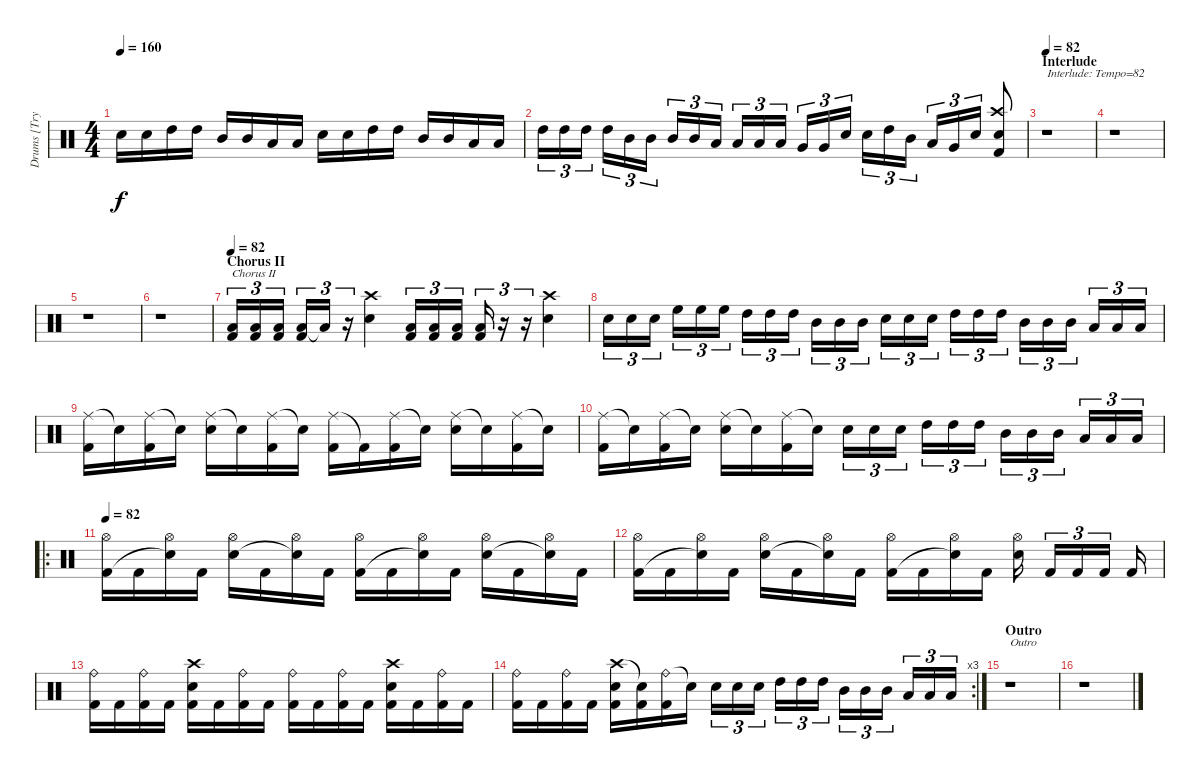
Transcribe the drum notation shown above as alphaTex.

\track ("Drums [Trym]" "Drums [Try") {instrument percussion}
\staff {score}
\articulation defaults
\ts (4 4)
\tempo 160
\clef neutral
\ks c "Electric Snare (hit)".16{dy f} "Electric Snare (hit)".16 "High Tom (hit)".16 "High Tom (hit)".16 "Mid Tom (hit)".16 "Mid Tom (hit)".16 "Low Tom (hit)".16 "Low Tom (hit)".16 "Electric Snare (hit)".16 "Electric Snare (hit)".16 "High Tom (hit)".16 "High Tom (hit)".16 "Mid Tom (hit)".16 "Mid Tom (hit)".16 "Low Tom (hit)".16 "Low Tom (hit)".16
|
"High Tom (hit)".16{tu (3 2)} "High Tom (hit)".16{tu (3 2)} "High Tom (hit)".16{tu (3 2)} "High Tom (hit)".16{tu (3 2)} "Mid Tom (hit)".16{tu (3 2)} "Mid Tom (hit)".16{tu (3 2)} "Mid Tom (hit)".16{tu (3 2)} "Mid Tom (hit)".16{tu (3 2)} "Low Tom (hit)".16{tu (3 2)} "Low Tom (hit)".16{tu (3 2)} "Low Tom (hit)".16{tu (3 2)} "Low Tom (hit)".16{tu (3 2)} "Very Low Tom (hit)".16{tu (3 2)} "Very Low Tom (hit)".16{tu (3 2)} "Electric Snare (hit)".16{tu (3 2)} "Electric Snare (hit)".16{tu (3 2)} "High Tom (hit)".16{tu (3 2)} "Mid Tom (hit)".16{tu (3 2)} "Low Tom (hit)".16{tu (3 2)} "Very Low Tom (hit)".16{tu (3 2)} "Electric Snare (hit)".16{tu (3 2)} ("Crash high (hit)" "Electric Snare (hit)" "Kick (hit) 2").8 |
\section ("" "Interlude")
\tempo 82
r.1{txt "Interlude: Tempo=82"} |
r.1 |
r.1 |
r.1 |
\section ("" "Chorus II")
\tempo 82
("Low Tom (hit)" "Kick (hit) 2").16{tu (3 2) txt "Chorus II"} ("Low Tom (hit)" "Kick (hit) 2").16{tu (3 2)} ("Low Tom (hit)" "Kick (hit) 2").16{tu (3 2)} ("Low Tom (hit)" "Kick (hit) 2").16{tu (3 2)} "Low Tom (hit)"{t}.16{tu (3 2)} r.16{tu (3 2)} ("Crash high (hit)" "Electric Snare (hit)").4 ("Low Tom (hit)" "Kick (hit) 2").16{tu (3 2)} ("Low Tom (hit)" "Kick (hit) 2").16{tu (3 2)} ("Low Tom (hit)" "Kick (hit) 2").16{tu (3 2)} ("Low Tom (hit)" "Kick (hit) 2").16{tu (3 2)} r.16{tu (3 2)} r.16{tu (3 2)} ("Crash high (hit)" "Electric Snare (hit)").4 |
"Electric Snare (hit)".16{tu (3 2)} "Electric Snare (hit)".16{tu (3 2)} "Electric Snare (hit)".16{tu (3 2)} "High Floor Tom (hit)".16{tu (3 2)} "High Floor Tom (hit)".16{tu (3 2)} "High Floor Tom (hit)".16{tu (3 2)} "High Tom (hit)".16{tu (3 2)} "High Tom (hit)".16{tu (3 2)} "High Tom (hit)".16{tu (3 2)} "Mid Tom (hit)".16{tu (3 2)} "Mid Tom (hit)".16{tu (3 2)} "Mid Tom (hit)".16{tu (3 2)} "Electric Snare (hit)".16{tu (3 2)} "Electric Snare (hit)".16{tu (3 2)} "Electric Snare (hit)".16{tu (3 2)} "High Tom (hit)".16{tu (3 2)} "High Tom (hit)".16{tu (3 2)} "High Tom (hit)".16{tu (3 2)} "Mid Tom (hit)".16{tu (3 2)} "Mid Tom (hit)".16{tu (3 2)} "Mid Tom (hit)".16{tu (3 2)} "Low Tom (hit)".16{tu (3 2)} "Low Tom (hit)".16{tu (3 2)} "Low Tom (hit)".16{tu (3 2)} |
("Ride (middle)" "Kick (hit) 2").16 "Snare (hit)"{t}.16 ("Ride (middle)" "Kick (hit) 2").16 "Snare (hit)"{t}.16 ("Ride (middle)" "Electric Snare (hit)").16 "Snare (hit)"{t}.16 ("Ride (middle)" "Kick (hit) 2").16 "Snare (hit)"{t}.16 ("Ride (middle)" "Kick (hit) 2").16 "Kick (hit) 2"{t}.16 ("Ride (middle)" "Kick (hit) 2").16 "Snare (hit)"{t}.16 ("Ride (middle)" "Electric Snare (hit)").16 "Snare (hit)"{t}.16 ("Ride (middle)" "Kick (hit) 2").16 "Snare (hit)"{t}.16 |
("Ride (middle)" "Kick (hit) 2").16 "Snare (hit)"{t}.16 ("Ride (middle)" "Kick (hit) 2").16 "Snare (hit)"{t}.16 ("Ride (middle)" "Electric Snare (hit)").16 "Snare (hit)"{t}.16 ("Ride (middle)" "Kick (hit) 2").16 "Snare (hit)"{t}.16 "Electric Snare (hit)".16{tu (3 2)} "Electric Snare (hit)".16{tu (3 2)} "Electric Snare (hit)".16{tu (3 2)} "High Tom (hit)".16{tu (3 2)} "High Tom (hit)".16{tu (3 2)} "High Tom (hit)".16{tu (3 2)} "Mid Tom (hit)".16{tu (3 2)} "Mid Tom (hit)".16{tu (3 2)} "Mid Tom (hit)".16{tu (3 2)} "Low Tom (hit)".16{tu (3 2)} "Low Tom (hit)".16{tu (3 2)} "Low Tom (hit)".16{tu (3 2)} |
\ro
\tempo 82
("Hi-Hat (open)" "Kick (hit) 2").16 "Kick (hit) 2".16 ("Hi-Hat (open)" "Snare (hit)"{t}).16 "Kick (hit) 2".16 ("Hi-Hat (open)" "Electric Snare (hit)").16 "Kick (hit) 2".16 ("Hi-Hat (open)" "Snare (hit)"{t}).16 "Kick (hit) 2".16 ("Hi-Hat (open)" "Kick (hit) 2").16 "Kick (hit) 2".16 ("Hi-Hat (open)" "Snare (hit)"{t}).16 "Kick (hit) 2".16 ("Hi-Hat (open)" "Electric Snare (hit)").16 "Kick (hit) 2".16 ("Hi-Hat (open)" "Snare (hit)"{t}).16 "Kick (hit) 2".16 |
("Hi-Hat (open)" "Kick (hit) 2").16 "Kick (hit) 2".16 ("Hi-Hat (open)" "Snare (hit)"{t}).16 "Kick (hit) 2".16 ("Hi-Hat (open)" "Electric Snare (hit)").16 "Kick (hit) 2".16 ("Hi-Hat (open)" "Snare (hit)"{t}).16 "Kick (hit) 2".16 ("Hi-Hat (open)" "Kick (hit) 2").16 "Kick (hit) 2".16 ("Hi-Hat (open)" "Snare (hit)"{t}).16 "Kick (hit) 2".16 ("Hi-Hat (open)" "Electric Snare (hit)").16 "Kick (hit) 2".16{tu (3 2)} "Kick (hit) 2".16{tu (3 2)} "Kick (hit) 2".16{tu (3 2)} "Kick (hit) 2".16 |
("Ride (bell)" "Kick (hit) 2").16 "Kick (hit) 2".16 ("Ride (bell)" "Kick (hit) 2").16 "Kick (hit) 2".16 ("Crash high (hit)" "Electric Snare (hit)" "Kick (hit) 2").16 "Kick (hit) 2".16 ("Ride (bell)" "Kick (hit) 2").16 "Kick (hit) 2".16 ("Ride (bell)" "Kick (hit) 2").16 "Kick (hit) 2".16 ("Ride (bell)" "Kick (hit) 2").16 "Kick (hit) 2".16 ("Crash high (hit)" "Electric Snare (hit)" "Kick (hit) 2").16 "Kick (hit) 2".16 ("Ride (bell)" "Kick (hit) 2").16 "Kick (hit) 2".16 |
\rc 3
("Ride (bell)" "Kick (hit) 2").16 "Kick (hit) 2".16 ("Ride (bell)" "Kick (hit) 2").16 "Kick (hit) 2".16 ("Crash high (hit)" "Electric Snare (hit)" "Kick (hit) 2").16 ("Snare (hit)"{t} "Kick (hit) 2").16 ("Ride (bell)" "Kick (hit) 2").16 "Snare (hit)"{t}.16 "Electric Snare (hit)".16{tu (3 2)} "Electric Snare (hit)".16{tu (3 2)} "Electric Snare (hit)".16{tu (3 2)} "High Tom (hit)".16{tu (3 2)} "High Tom (hit)".16{tu (3 2)} "High Tom (hit)".16{tu (3 2)} "Mid Tom (hit)".16{tu (3 2)} "Mid Tom (hit)".16{tu (3 2)} "Mid Tom (hit)".16{tu (3 2)} "Low Tom (hit)".16{tu (3 2)} "Low Tom (hit)".16{tu (3 2)} "Low Tom (hit)".16{tu (3 2)} |
\section ("" "Outro")
r.1{txt "Outro"} |
r.1
